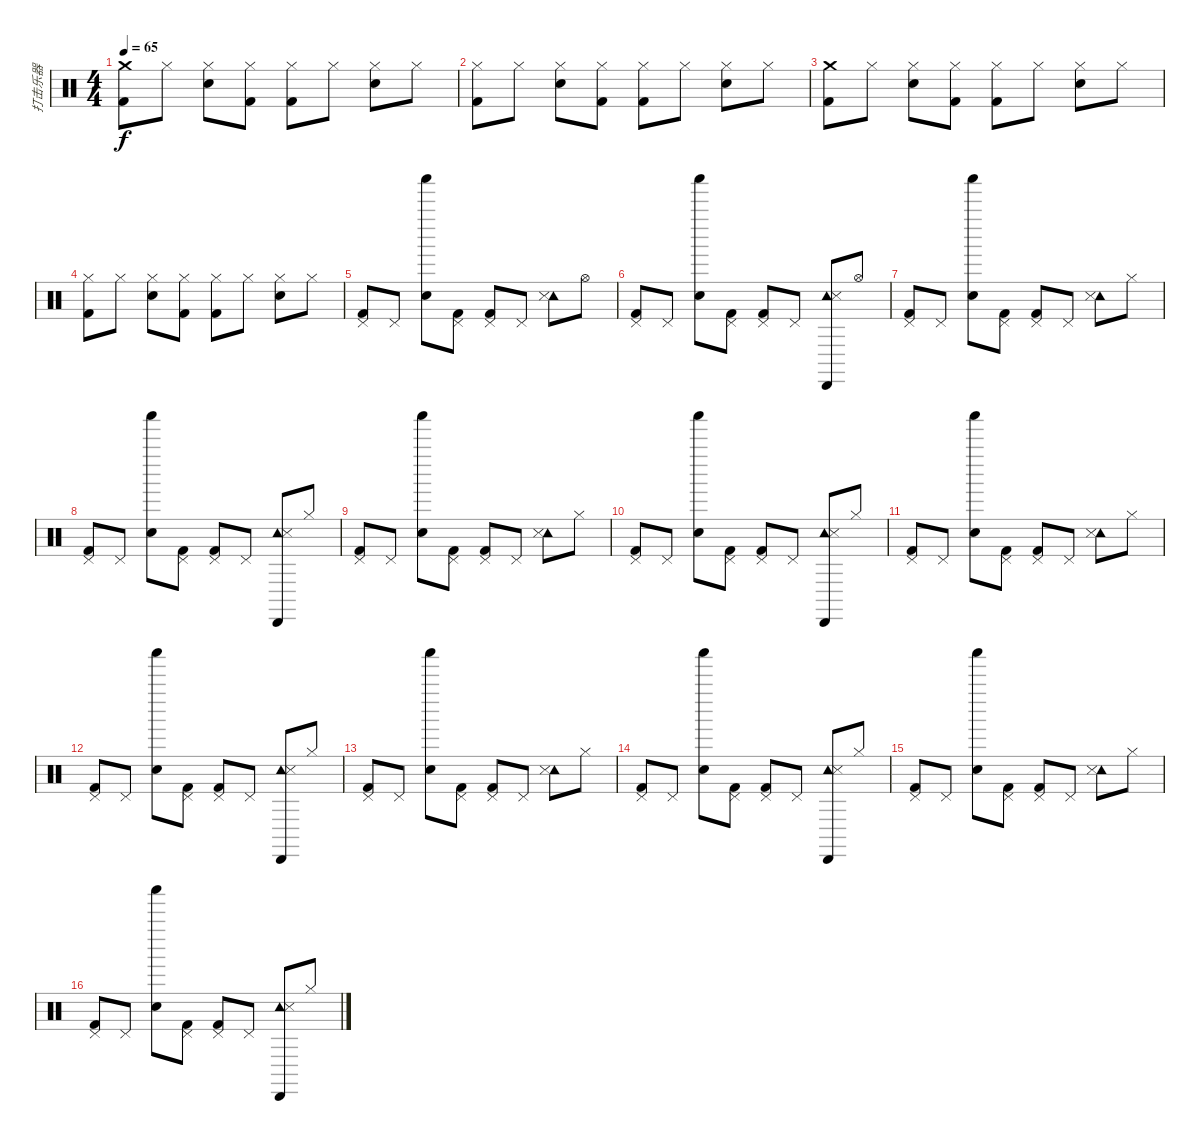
\track ("打击乐器" "打击乐器") {instrument percussion}
\staff {score}
\articulation defaults
\ts (4 4)
\tempo 65
\clef neutral
\ks c
("Crash medium (hit)" "Kick (hit) 2").8{dy f} "Hi-Hat (closed)".8 ("Hi-Hat (closed)" "Electric Snare (hit)").8 ("Hi-Hat (closed)" "Kick (hit) 2").8 ("Hi-Hat (closed)" "Kick (hit) 2").8 "Hi-Hat (closed)".8 ("Hi-Hat (closed)" "Electric Snare (hit)").8 "Hi-Hat (closed)".8 |
("Hi-Hat (closed)" "Kick (hit) 2").8 "Hi-Hat (closed)".8 ("Hi-Hat (closed)" "Electric Snare (hit)").8 ("Hi-Hat (closed)" "Kick (hit) 2").8 ("Hi-Hat (closed)" "Kick (hit) 2").8 "Hi-Hat (closed)".8 ("Hi-Hat (closed)" "Electric Snare (hit)").8 "Hi-Hat (closed)".8 |
("Crash medium (hit)" "Kick (hit) 2").8 "Hi-Hat (closed)".8 ("Hi-Hat (closed)" "Electric Snare (hit)").8 ("Hi-Hat (closed)" "Kick (hit) 2").8 ("Hi-Hat (closed)" "Kick (hit) 2").8 "Hi-Hat (closed)".8 ("Hi-Hat (closed)" "Electric Snare (hit)").8 "Hi-Hat (closed)".8 |
("Hi-Hat (closed)" "Kick (hit) 2").8 "Hi-Hat (closed)".8 ("Hi-Hat (closed)" "Electric Snare (hit)").8 ("Hi-Hat (closed)" "Kick (hit) 2").8 ("Hi-Hat (closed)" "Kick (hit) 2").8 "Hi-Hat (closed)".8 ("Hi-Hat (closed)" "Electric Snare (hit)").8 "Hi-Hat (closed)".8 |
("Pedal Hi-Hat (hit)" "Kick (hit) 2").8 "Pedal Hi-Hat (hit)".8 ("Shaker (hit)" "Hand Clap (hit)").8 ("Pedal Hi-Hat (hit)" "Kick (hit) 2").8 ("Pedal Hi-Hat (hit)" "Kick (hit) 2").8 "Pedal Hi-Hat (hit)".8 ("Tambourine (hit)" "Metronome (hit)").8 "Hi-Hat (open)".8 |
("Pedal Hi-Hat (hit)" "Kick (hit) 2").8 "Pedal Hi-Hat (hit)".8 ("Shaker (hit)" "Hand Clap (hit)").8 ("Pedal Hi-Hat (hit)" "Kick (hit) 2").8 ("Pedal Hi-Hat (hit)" "Kick (hit) 2").8 "Pedal Hi-Hat (hit)".8 ("Tambourine (hit)" "Metronome (hit)" "Cabasa (hit)").8 "Hi-Hat (open)".8 |
("Pedal Hi-Hat (hit)" "Kick (hit) 2").8 "Pedal Hi-Hat (hit)".8 ("Shaker (hit)" "Hand Clap (hit)").8 ("Pedal Hi-Hat (hit)" "Kick (hit) 2").8 ("Pedal Hi-Hat (hit)" "Kick (hit) 2").8 "Pedal Hi-Hat (hit)".8 ("Tambourine (hit)" "Metronome (hit)").8 "Hi-Hat (closed)".8 |
("Pedal Hi-Hat (hit)" "Kick (hit) 2").8 "Pedal Hi-Hat (hit)".8 ("Shaker (hit)" "Hand Clap (hit)").8 ("Pedal Hi-Hat (hit)" "Kick (hit) 2").8 ("Pedal Hi-Hat (hit)" "Kick (hit) 2").8 "Pedal Hi-Hat (hit)".8 ("Tambourine (hit)" "Metronome (hit)" "Cabasa (hit)").8 "Hi-Hat (closed)".8 |
("Pedal Hi-Hat (hit)" "Kick (hit) 2").8 "Pedal Hi-Hat (hit)".8 ("Shaker (hit)" "Hand Clap (hit)").8 ("Pedal Hi-Hat (hit)" "Kick (hit) 2").8 ("Pedal Hi-Hat (hit)" "Kick (hit) 2").8 "Pedal Hi-Hat (hit)".8 ("Tambourine (hit)" "Metronome (hit)").8 "Hi-Hat (closed)".8 |
("Pedal Hi-Hat (hit)" "Kick (hit) 2").8 "Pedal Hi-Hat (hit)".8 ("Shaker (hit)" "Hand Clap (hit)").8 ("Pedal Hi-Hat (hit)" "Kick (hit) 2").8 ("Pedal Hi-Hat (hit)" "Kick (hit) 2").8 "Pedal Hi-Hat (hit)".8 ("Tambourine (hit)" "Metronome (hit)" "Cabasa (hit)").8 "Hi-Hat (closed)".8 |
("Pedal Hi-Hat (hit)" "Kick (hit) 2").8 "Pedal Hi-Hat (hit)".8 ("Shaker (hit)" "Hand Clap (hit)").8 ("Pedal Hi-Hat (hit)" "Kick (hit) 2").8 ("Pedal Hi-Hat (hit)" "Kick (hit) 2").8 "Pedal Hi-Hat (hit)".8 ("Tambourine (hit)" "Metronome (hit)").8 "Hi-Hat (closed)".8 |
("Pedal Hi-Hat (hit)" "Kick (hit) 2").8 "Pedal Hi-Hat (hit)".8 ("Shaker (hit)" "Hand Clap (hit)").8 ("Pedal Hi-Hat (hit)" "Kick (hit) 2").8 ("Pedal Hi-Hat (hit)" "Kick (hit) 2").8 "Pedal Hi-Hat (hit)".8 ("Tambourine (hit)" "Metronome (hit)" "Cabasa (hit)").8 "Hi-Hat (closed)".8 |
("Pedal Hi-Hat (hit)" "Kick (hit) 2").8 "Pedal Hi-Hat (hit)".8 ("Shaker (hit)" "Hand Clap (hit)").8 ("Pedal Hi-Hat (hit)" "Kick (hit) 2").8 ("Pedal Hi-Hat (hit)" "Kick (hit) 2").8 "Pedal Hi-Hat (hit)".8 ("Tambourine (hit)" "Metronome (hit)").8 "Hi-Hat (closed)".8 |
("Pedal Hi-Hat (hit)" "Kick (hit) 2").8 "Pedal Hi-Hat (hit)".8 ("Shaker (hit)" "Hand Clap (hit)").8 ("Pedal Hi-Hat (hit)" "Kick (hit) 2").8 ("Pedal Hi-Hat (hit)" "Kick (hit) 2").8 "Pedal Hi-Hat (hit)".8 ("Tambourine (hit)" "Metronome (hit)" "Cabasa (hit)").8 "Hi-Hat (closed)".8 |
("Pedal Hi-Hat (hit)" "Kick (hit) 2").8 "Pedal Hi-Hat (hit)".8 ("Shaker (hit)" "Hand Clap (hit)").8 ("Pedal Hi-Hat (hit)" "Kick (hit) 2").8 ("Pedal Hi-Hat (hit)" "Kick (hit) 2").8 "Pedal Hi-Hat (hit)".8 ("Tambourine (hit)" "Metronome (hit)").8 "Hi-Hat (closed)".8 |
("Pedal Hi-Hat (hit)" "Kick (hit) 2").8 "Pedal Hi-Hat (hit)".8 ("Shaker (hit)" "Hand Clap (hit)").8 ("Pedal Hi-Hat (hit)" "Kick (hit) 2").8 ("Pedal Hi-Hat (hit)" "Kick (hit) 2").8 "Pedal Hi-Hat (hit)".8 ("Tambourine (hit)" "Metronome (hit)" "Cabasa (hit)").8 "Hi-Hat (closed)".8
